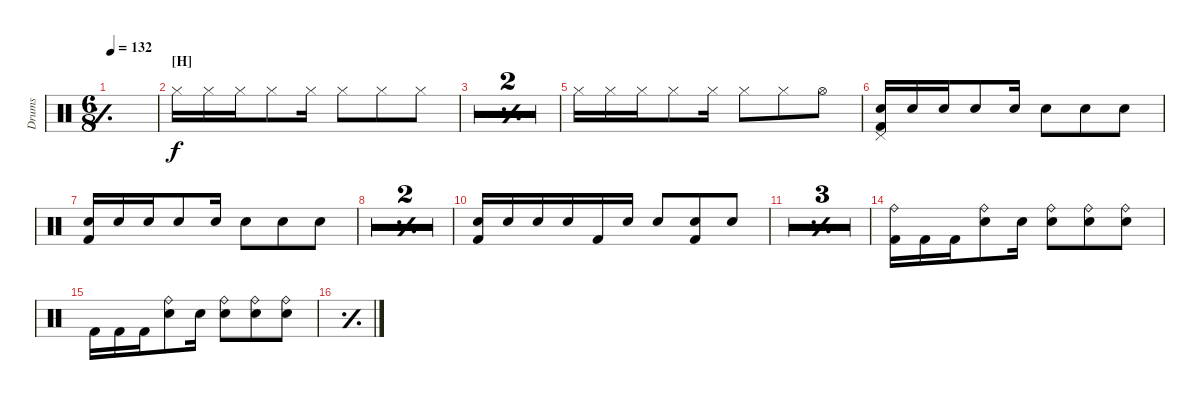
\defaultSystemsLayout 4
\bracketExtendMode groupsimilarinstruments
\otherSystemsTrackNameOrientation horizontal
\track ("Drumkit" "Drums") {multiBarRest instrument percussion}
\staff {score}
\articulation defaults
\ts (6 8)
\tempo 132
\clef neutral
\simile simple
\ks c
|
\section ("H" "")
\simile none "Hi-Hat (closed)".16 "Hi-Hat (closed)".16 "Hi-Hat (closed)".16 "Hi-Hat (closed)".8 "Hi-Hat (closed)".16 "Hi-Hat (closed)".8 "Hi-Hat (closed)".8 "Hi-Hat (closed)".8
|
\simile simple
|
|
\simile none "Hi-Hat (closed)".16 "Hi-Hat (closed)".16 "Hi-Hat (closed)".16 "Hi-Hat (closed)".8 "Hi-Hat (closed)".16 "Hi-Hat (closed)".8 "Hi-Hat (closed)".8 "Hi-Hat (open)".8
|
("Pedal Hi-Hat (hit)" "Kick (hit) 2" "Snare (hit) 2").16 "Snare (hit) 2".16 "Snare (hit) 2".16 "Snare (hit) 2".8 "Snare (hit) 2".16 "Snare (hit) 2".8 "Snare (hit) 2".8 "Snare (hit) 2".8 |
("Kick (hit) 2" "Snare (hit) 2").16 "Snare (hit) 2".16 "Snare (hit) 2".16 "Snare (hit) 2".8 "Snare (hit) 2".16 "Snare (hit) 2".8 "Snare (hit) 2".8 "Snare (hit) 2".8 |
\simile simple
|
|
\simile none
("Kick (hit) 2" "Snare (hit) 2").16 "Snare (hit) 2".16 "Snare (hit) 2".16 "Snare (hit) 2".16 "Kick (hit) 2".16 "Snare (hit) 2".16 "Snare (hit) 2".8 ("Snare (hit) 2" "Kick (hit) 2").8 "Snare (hit) 2".8 |
\simile simple
|
|
|
\simile none
("Kick (hit) 2" "Ride (bell)").16 "Kick (hit) 2".16 "Kick (hit) 2".16 ("Snare (hit) 2" "Ride (bell)").8 "Snare (hit) 2".16 ("Snare (hit) 2" "Ride (bell)").8 ("Snare (hit) 2" "Ride (bell)").8 ("Snare (hit) 2" "Ride (bell)").8 |
"Kick (hit) 2".16 "Kick (hit) 2".16 "Kick (hit) 2".16 ("Snare (hit) 2" "Ride (bell)").8 "Snare (hit) 2".16 ("Snare (hit) 2" "Ride (bell)").8 ("Snare (hit) 2" "Ride (bell)").8 ("Snare (hit) 2" "Ride (bell)").8 |
\simile simple
